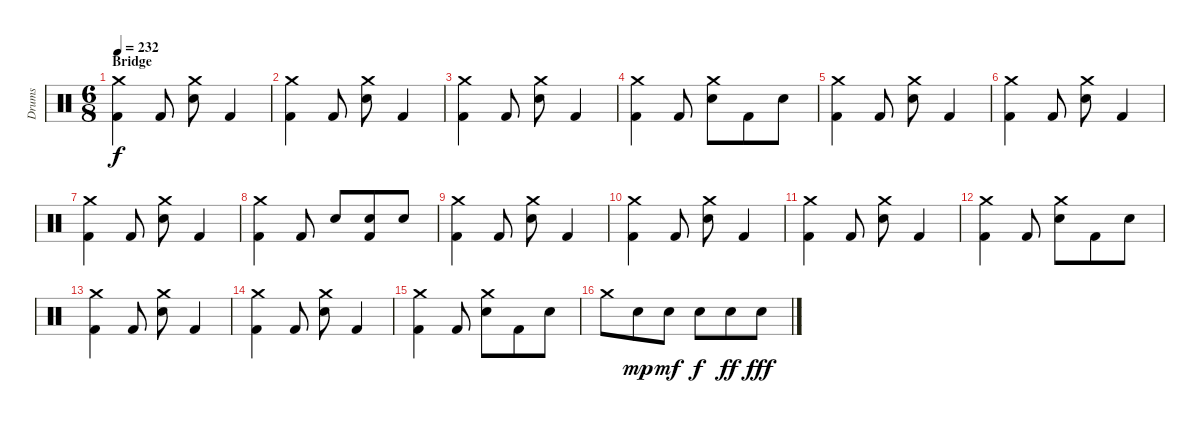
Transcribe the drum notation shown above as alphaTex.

\track ("Drums" "Drums") {instrument percussion}
\staff {score}
\articulation defaults
\ts (6 8)
\section ("" "Bridge")
\tempo 232
\clef neutral
\ks c
("Crash medium (hit)" "Kick (hit) 2").4{dy f} "Kick (hit) 2".8 ("Crash medium (hit)" "Snare (hit) 2").8 "Kick (hit) 2".4 |
("Crash medium (hit)" "Kick (hit) 2").4 "Kick (hit) 2".8 ("Crash medium (hit)" "Snare (hit) 2").8 "Kick (hit) 2".4 |
("Crash medium (hit)" "Kick (hit) 2").4 "Kick (hit) 2".8 ("Crash medium (hit)" "Snare (hit) 2").8 "Kick (hit) 2".4 |
("Crash medium (hit)" "Kick (hit) 2").4 "Kick (hit) 2".8 ("Crash medium (hit)" "Snare (hit) 2").8 "Kick (hit) 2".8 "Snare (hit) 2".8 |
("Crash medium (hit)" "Kick (hit) 2").4 "Kick (hit) 2".8 ("Crash medium (hit)" "Snare (hit) 2").8 "Kick (hit) 2".4 |
("Crash medium (hit)" "Kick (hit) 2").4 "Kick (hit) 2".8 ("Crash medium (hit)" "Snare (hit) 2").8 "Kick (hit) 2".4 |
("Crash medium (hit)" "Kick (hit) 2").4 "Kick (hit) 2".8 ("Crash medium (hit)" "Snare (hit) 2").8 "Kick (hit) 2".4 |
("Crash medium (hit)" "Kick (hit) 2").4 "Kick (hit) 2".8 "Snare (hit) 2".8 ("Snare (hit) 2" "Kick (hit) 2").8 "Snare (hit) 2".8 |
("Crash medium (hit)" "Kick (hit) 2").4 "Kick (hit) 2".8 ("Crash medium (hit)" "Snare (hit) 2").8 "Kick (hit) 2".4 |
("Crash medium (hit)" "Kick (hit) 2").4 "Kick (hit) 2".8 ("Crash medium (hit)" "Snare (hit) 2").8 "Kick (hit) 2".4 |
("Crash medium (hit)" "Kick (hit) 2").4 "Kick (hit) 2".8 ("Crash medium (hit)" "Snare (hit) 2").8 "Kick (hit) 2".4 |
("Crash medium (hit)" "Kick (hit) 2").4 "Kick (hit) 2".8 ("Crash medium (hit)" "Snare (hit) 2").8 "Kick (hit) 2".8 "Snare (hit) 2".8 |
("Crash medium (hit)" "Kick (hit) 2").4 "Kick (hit) 2".8 ("Crash medium (hit)" "Snare (hit) 2").8 "Kick (hit) 2".4 |
("Crash medium (hit)" "Kick (hit) 2").4 "Kick (hit) 2".8 ("Crash medium (hit)" "Snare (hit) 2").8 "Kick (hit) 2".4 |
("Crash medium (hit)" "Kick (hit) 2").4 "Kick (hit) 2".8 ("Crash medium (hit)" "Snare (hit) 2").8 "Kick (hit) 2".8 "Snare (hit) 2".8 |
"Crash medium (hit)".8 "Snare (hit) 2".8{dy mp} "Snare (hit) 2".8{dy mf} "Snare (hit) 2".8{dy f} "Snare (hit) 2".8{dy ff} "Snare (hit) 2".8{dy fff}
